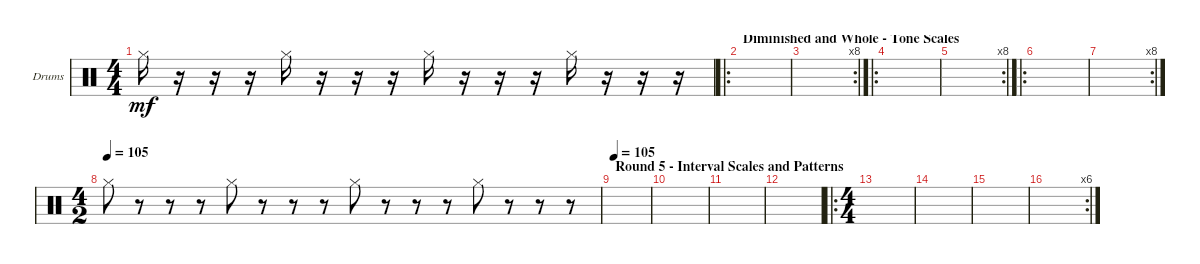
\defaultSystemsLayout 4
\bracketExtendMode groupsimilarinstruments
\firstSystemTrackNameOrientation horizontal
\otherSystemsTrackNameOrientation horizontal
\track ("Drumkit" "Drums") {instrument percussion}
\staff {score}
\articulation defaults
\ts (4 4)
\tempo (125 hide)
\clef neutral
\scale
0.301587
\ks c "Hi-Hat (closed)".16{dy mf}
r.16 r.16 r.16 "Hi-Hat (closed)".16 r.16 r.16 r.16 "Hi-Hat (closed)".16 r.16 r.16 r.16 "Hi-Hat (closed)".16 r.16 r.16 r.16 |
\ro
\section ("" "Diminished and Whole - Tone Scales")
\scale
0.365079 |
\rc 8
\scale
0.323077 |
\ro
\scale
0.353846 |
\rc 8
\scale
0.323077 |
\ro
\scale
0.294872 |
\rc 8
\scale
0.269231 |
\ts (4 2)
\tempo 105
\scale
0.435897 "Hi-Hat (closed)".8 r.8 r.8 r.8 "Hi-Hat (closed)".8 r.8 r.8 r.8 "Hi-Hat (closed)".8 r.8 r.8 r.8 "Hi-Hat (closed)".8 r.8 r.8 r.8 |
\section ("" "Round 5 - Interval Scales and Patterns")
\tempo 105
\scale
0.333333 |
\scale
0.333333 |
\scale
0.333333 |
\scale
0.25 |
\ro
\ts (4 4)
\tempo (105 hide)
\scale
0.5 |
\scale
0.25 |
\scale
0.256757 |
\rc 6
\scale
0.283784
